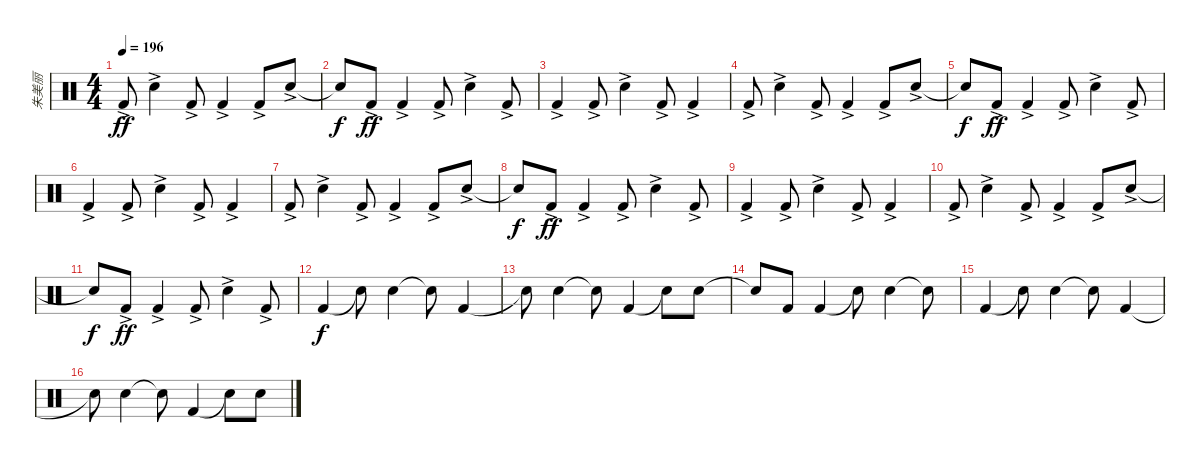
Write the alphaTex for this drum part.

\track ("朱美丽" "朱美丽") {instrument percussion}
\staff {score}
\articulation defaults
\ts (4 4)
\tempo 196
\clef neutral
\ks c "Kick (hit) 2"{ac}.8{dy ff} "Electric Snare (hit)"{ac}.4 "Kick (hit) 2"{ac}.8 "Kick (hit) 2"{ac}.4 "Kick (hit) 2"{ac}.8 "Electric Snare (hit)"{ac}.8
|
"Snare (hit)"{t}.8{dy f} "Kick (hit) 2"{ac}.8{dy ff} "Kick (hit) 2"{ac}.4 "Kick (hit) 2"{ac}.8 "Electric Snare (hit)"{ac}.4 "Kick (hit) 2"{ac}.8 |
"Kick (hit) 2"{ac}.4 "Kick (hit) 2"{ac}.8 "Electric Snare (hit)"{ac}.4 "Kick (hit) 2"{ac}.8 "Kick (hit) 2"{ac}.4 |
"Kick (hit) 2"{ac}.8 "Electric Snare (hit)"{ac}.4 "Kick (hit) 2"{ac}.8 "Kick (hit) 2"{ac}.4 "Kick (hit) 2"{ac}.8 "Electric Snare (hit)"{ac}.8 |
"Snare (hit)"{t}.8{dy f} "Kick (hit) 2"{ac}.8{dy ff} "Kick (hit) 2"{ac}.4 "Kick (hit) 2"{ac}.8 "Electric Snare (hit)"{ac}.4 "Kick (hit) 2"{ac}.8 |
"Kick (hit) 2"{ac}.4 "Kick (hit) 2"{ac}.8 "Electric Snare (hit)"{ac}.4 "Kick (hit) 2"{ac}.8 "Kick (hit) 2"{ac}.4 |
"Kick (hit) 2"{ac}.8 "Electric Snare (hit)"{ac}.4 "Kick (hit) 2"{ac}.8 "Kick (hit) 2"{ac}.4 "Kick (hit) 2"{ac}.8 "Electric Snare (hit)"{ac}.8 |
"Snare (hit)"{t}.8{dy f} "Kick (hit) 2"{ac}.8{dy ff} "Kick (hit) 2"{ac}.4 "Kick (hit) 2"{ac}.8 "Electric Snare (hit)"{ac}.4 "Kick (hit) 2"{ac}.8 |
"Kick (hit) 2"{ac}.4 "Kick (hit) 2"{ac}.8 "Electric Snare (hit)"{ac}.4 "Kick (hit) 2"{ac}.8 "Kick (hit) 2"{ac}.4 |
"Kick (hit) 2"{ac}.8 "Electric Snare (hit)"{ac}.4 "Kick (hit) 2"{ac}.8 "Kick (hit) 2"{ac}.4 "Kick (hit) 2"{ac}.8 "Electric Snare (hit)"{ac}.8 |
"Snare (hit)"{t}.8{dy f} "Kick (hit) 2"{ac}.8{dy ff} "Kick (hit) 2"{ac}.4 "Kick (hit) 2"{ac}.8 "Electric Snare (hit)"{ac}.4 "Kick (hit) 2"{ac}.8 |
"Kick (hit) 2".4{dy f} "Snare (hit)"{t}.8 "Electric Snare (hit)".4 "Snare (hit)"{t}.8 "Kick (hit) 2".4 |
"Snare (hit)"{t}.8 "Electric Snare (hit)".4 "Snare (hit)"{t}.8 "Kick (hit) 2".4 "Snare (hit)"{t}.8 "Electric Snare (hit)".8 |
"Snare (hit)"{t}.8 "Kick (hit) 2".8 "Kick (hit) 2".4 "Snare (hit)"{t}.8 "Electric Snare (hit)".4 "Snare (hit)"{t}.8 |
"Kick (hit) 2".4 "Snare (hit)"{t}.8 "Electric Snare (hit)".4 "Snare (hit)"{t}.8 "Kick (hit) 2".4 |
"Snare (hit)"{t}.8 "Electric Snare (hit)".4 "Snare (hit)"{t}.8 "Kick (hit) 2".4 "Snare (hit)"{t}.8 "Electric Snare (hit)".8
